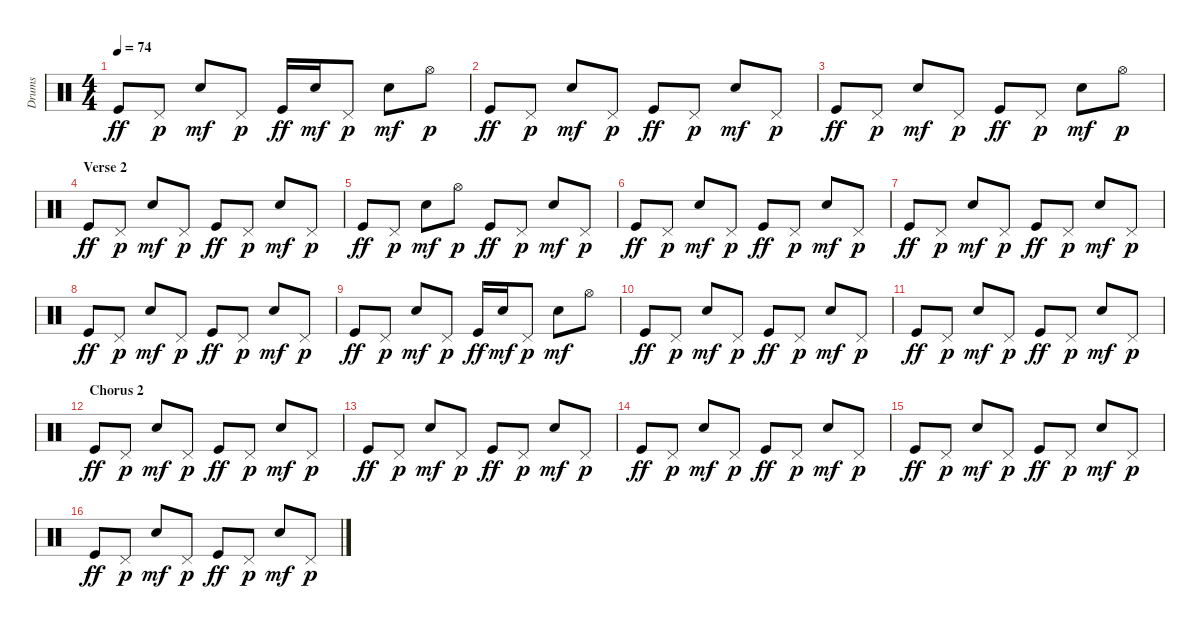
\track ("Drums" "Drums") {instrument percussion}
\staff {score}
\articulation defaults
\ts (4 4)
\tempo 74
\clef neutral
\ks c "Kick (hit)".8{dy ff} "Pedal Hi-Hat (hit)".8{dy p} "Electric Snare (hit)".8{dy mf} "Pedal Hi-Hat (hit)".8{dy p} "Kick (hit)".16{dy ff} "Electric Snare (hit)".16{dy mf} "Pedal Hi-Hat (hit)".8{dy p} "Electric Snare (hit)".8{dy mf} "Hi-Hat (open)".8{dy p}
|
"Kick (hit)".8{dy ff} "Pedal Hi-Hat (hit)".8{dy p} "Electric Snare (hit)".8{dy mf} "Pedal Hi-Hat (hit)".8{dy p} "Kick (hit)".8{dy ff} "Pedal Hi-Hat (hit)".8{dy p} "Electric Snare (hit)".8{dy mf} "Pedal Hi-Hat (hit)".8{dy p} |
"Kick (hit)".8{dy ff} "Pedal Hi-Hat (hit)".8{dy p} "Electric Snare (hit)".8{dy mf} "Pedal Hi-Hat (hit)".8{dy p} "Kick (hit)".8{dy ff} "Pedal Hi-Hat (hit)".8{dy p} "Electric Snare (hit)".8{dy mf} "Hi-Hat (open)".8{dy p} |
\section ("" "Verse 2")
"Kick (hit)".8{dy ff} "Pedal Hi-Hat (hit)".8{dy p} "Electric Snare (hit)".8{dy mf} "Pedal Hi-Hat (hit)".8{dy p} "Kick (hit)".8{dy ff} "Pedal Hi-Hat (hit)".8{dy p} "Electric Snare (hit)".8{dy mf} "Pedal Hi-Hat (hit)".8{dy p} |
"Kick (hit)".8{dy ff} "Pedal Hi-Hat (hit)".8{dy p} "Electric Snare (hit)".8{dy mf} "Hi-Hat (open)".8{dy p} "Kick (hit)".8{dy ff} "Pedal Hi-Hat (hit)".8{dy p} "Electric Snare (hit)".8{dy mf} "Pedal Hi-Hat (hit)".8{dy p} |
"Kick (hit)".8{dy ff} "Pedal Hi-Hat (hit)".8{dy p} "Electric Snare (hit)".8{dy mf} "Pedal Hi-Hat (hit)".8{dy p} "Kick (hit)".8{dy ff} "Pedal Hi-Hat (hit)".8{dy p} "Electric Snare (hit)".8{dy mf} "Pedal Hi-Hat (hit)".8{dy p} |
"Kick (hit)".8{dy ff} "Pedal Hi-Hat (hit)".8{dy p} "Electric Snare (hit)".8{dy mf} "Pedal Hi-Hat (hit)".8{dy p} "Kick (hit)".8{dy ff} "Pedal Hi-Hat (hit)".8{dy p} "Electric Snare (hit)".8{dy mf} "Pedal Hi-Hat (hit)".8{dy p} |
"Kick (hit)".8{dy ff} "Pedal Hi-Hat (hit)".8{dy p} "Electric Snare (hit)".8{dy mf} "Pedal Hi-Hat (hit)".8{dy p} "Kick (hit)".8{dy ff} "Pedal Hi-Hat (hit)".8{dy p} "Electric Snare (hit)".8{dy mf} "Pedal Hi-Hat (hit)".8{dy p} |
"Kick (hit)".8{dy ff} "Pedal Hi-Hat (hit)".8{dy p} "Electric Snare (hit)".8{dy mf} "Pedal Hi-Hat (hit)".8{dy p} "Kick (hit)".16{dy ff} "Electric Snare (hit)".16{dy mf} "Pedal Hi-Hat (hit)".8{dy p} "Electric Snare (hit)".8{dy mf} "Hi-Hat (open)".8 |
"Kick (hit)".8{dy ff} "Pedal Hi-Hat (hit)".8{dy p} "Electric Snare (hit)".8{dy mf} "Pedal Hi-Hat (hit)".8{dy p} "Kick (hit)".8{dy ff} "Pedal Hi-Hat (hit)".8{dy p} "Electric Snare (hit)".8{dy mf} "Pedal Hi-Hat (hit)".8{dy p} |
"Kick (hit)".8{dy ff} "Pedal Hi-Hat (hit)".8{dy p} "Electric Snare (hit)".8{dy mf} "Pedal Hi-Hat (hit)".8{dy p} "Kick (hit)".8{dy ff} "Pedal Hi-Hat (hit)".8{dy p} "Electric Snare (hit)".8{dy mf} "Pedal Hi-Hat (hit)".8{dy p} |
\section ("" "Chorus 2")
"Kick (hit)".8{dy ff} "Pedal Hi-Hat (hit)".8{dy p} "Electric Snare (hit)".8{dy mf} "Pedal Hi-Hat (hit)".8{dy p} "Kick (hit)".8{dy ff} "Pedal Hi-Hat (hit)".8{dy p} "Electric Snare (hit)".8{dy mf} "Pedal Hi-Hat (hit)".8{dy p} |
"Kick (hit)".8{dy ff} "Pedal Hi-Hat (hit)".8{dy p} "Electric Snare (hit)".8{dy mf} "Pedal Hi-Hat (hit)".8{dy p} "Kick (hit)".8{dy ff} "Pedal Hi-Hat (hit)".8{dy p} "Electric Snare (hit)".8{dy mf} "Pedal Hi-Hat (hit)".8{dy p} |
"Kick (hit)".8{dy ff} "Pedal Hi-Hat (hit)".8{dy p} "Electric Snare (hit)".8{dy mf} "Pedal Hi-Hat (hit)".8{dy p} "Kick (hit)".8{dy ff} "Pedal Hi-Hat (hit)".8{dy p} "Electric Snare (hit)".8{dy mf} "Pedal Hi-Hat (hit)".8{dy p} |
"Kick (hit)".8{dy ff} "Pedal Hi-Hat (hit)".8{dy p} "Electric Snare (hit)".8{dy mf} "Pedal Hi-Hat (hit)".8{dy p} "Kick (hit)".8{dy ff} "Pedal Hi-Hat (hit)".8{dy p} "Electric Snare (hit)".8{dy mf} "Pedal Hi-Hat (hit)".8{dy p} |
"Kick (hit)".8{dy ff} "Pedal Hi-Hat (hit)".8{dy p} "Electric Snare (hit)".8{dy mf} "Pedal Hi-Hat (hit)".8{dy p} "Kick (hit)".8{dy ff} "Pedal Hi-Hat (hit)".8{dy p} "Electric Snare (hit)".8{dy mf} "Pedal Hi-Hat (hit)".8{dy p}
